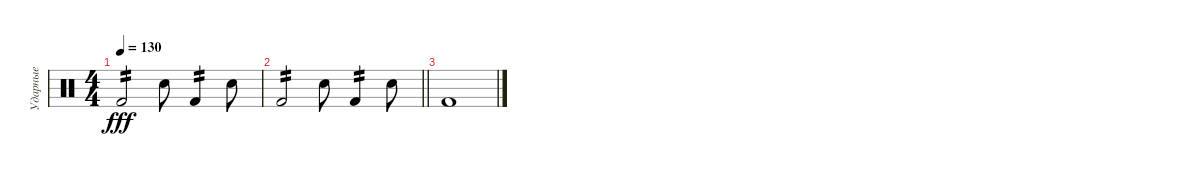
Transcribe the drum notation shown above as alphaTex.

\track ("Ударные" "Ударные") {instrument percussion}
\staff {score}
\articulation defaults
\ts (4 4)
\tempo 130
\clef neutral
\ks c "Kick (hit) 2".2{tp 2 dy fff} "Snare (hit) 2".8 "Kick (hit) 2".4{tp 2} "Snare (hit) 2".8
|
\barLineRight lightlight "Kick (hit) 2".2{tp 2} "Snare (hit) 2".8 "Kick (hit) 2".4{tp 2} "Snare (hit) 2".8
|
"Kick (hit) 2".1
